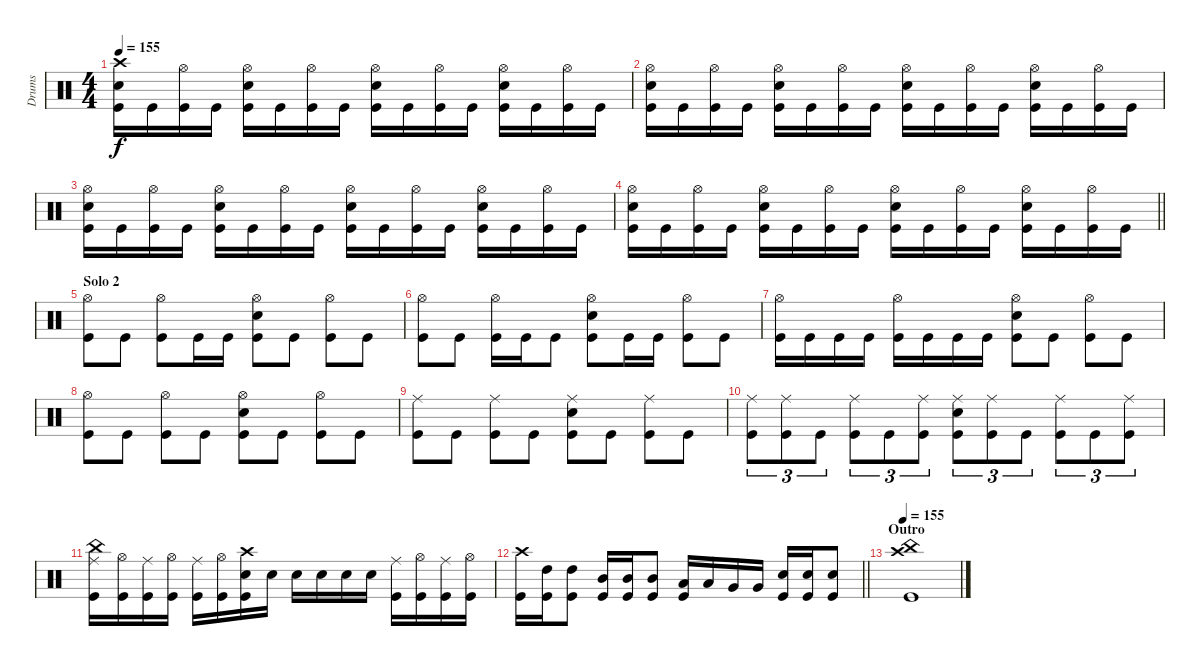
\track ("Drums" "Drums") {instrument percussion}
\staff {score}
\articulation defaults
\ts (4 4)
\tempo 155
\clef neutral
\ks c
("Kick (hit)" "Snare (hit) 2" "Crash high (hit)").16{dy f} "Kick (hit)".16 ("Kick (hit)" "Hi-Hat (open)").16 "Kick (hit)".16 ("Kick (hit)" "Snare (hit) 2" "Hi-Hat (open)").16 "Kick (hit)".16 ("Kick (hit)" "Hi-Hat (open)").16 "Kick (hit)".16 ("Kick (hit)" "Snare (hit) 2" "Hi-Hat (open)").16 "Kick (hit)".16 ("Kick (hit)" "Hi-Hat (open)").16 "Kick (hit)".16 ("Kick (hit)" "Snare (hit) 2" "Hi-Hat (open)").16 "Kick (hit)".16 ("Kick (hit)" "Hi-Hat (open)").16 "Kick (hit)".16 |
("Kick (hit)" "Snare (hit) 2" "Hi-Hat (open)").16 "Kick (hit)".16 ("Kick (hit)" "Hi-Hat (open)").16 "Kick (hit)".16 ("Kick (hit)" "Snare (hit) 2" "Hi-Hat (open)").16 "Kick (hit)".16 ("Kick (hit)" "Hi-Hat (open)").16 "Kick (hit)".16 ("Kick (hit)" "Snare (hit) 2" "Hi-Hat (open)").16 "Kick (hit)".16 ("Kick (hit)" "Hi-Hat (open)").16 "Kick (hit)".16 ("Kick (hit)" "Snare (hit) 2" "Hi-Hat (open)").16 "Kick (hit)".16 ("Kick (hit)" "Hi-Hat (open)").16 "Kick (hit)".16 |
("Kick (hit)" "Snare (hit) 2" "Hi-Hat (open)").16 "Kick (hit)".16 ("Kick (hit)" "Hi-Hat (open)").16 "Kick (hit)".16 ("Kick (hit)" "Snare (hit) 2" "Hi-Hat (open)").16 "Kick (hit)".16 ("Kick (hit)" "Hi-Hat (open)").16 "Kick (hit)".16 ("Kick (hit)" "Snare (hit) 2" "Hi-Hat (open)").16 "Kick (hit)".16 ("Kick (hit)" "Hi-Hat (open)").16 "Kick (hit)".16 ("Kick (hit)" "Snare (hit) 2" "Hi-Hat (open)").16 "Kick (hit)".16 ("Kick (hit)" "Hi-Hat (open)").16 "Kick (hit)".16 |
\barLineRight lightlight
("Kick (hit)" "Snare (hit) 2" "Hi-Hat (open)").16 "Kick (hit)".16 ("Kick (hit)" "Hi-Hat (open)").16 "Kick (hit)".16 ("Kick (hit)" "Snare (hit) 2" "Hi-Hat (open)").16 "Kick (hit)".16 ("Kick (hit)" "Hi-Hat (open)").16 "Kick (hit)".16 ("Kick (hit)" "Snare (hit) 2" "Hi-Hat (open)").16 "Kick (hit)".16 ("Kick (hit)" "Hi-Hat (open)").16 "Kick (hit)".16 ("Kick (hit)" "Snare (hit) 2" "Hi-Hat (open)").16 "Kick (hit)".16 ("Kick (hit)" "Hi-Hat (open)").16 "Kick (hit)".16 |
\section ("" "Solo 2")
("Kick (hit)" "Hi-Hat (open)").8 "Kick (hit)".8 ("Kick (hit)" "Hi-Hat (open)").8 "Kick (hit)".16 "Kick (hit)".16 ("Kick (hit)" "Snare (hit) 2" "Hi-Hat (open)").8 "Kick (hit)".8 ("Kick (hit)" "Hi-Hat (open)").8 "Kick (hit)".8 |
("Kick (hit)" "Hi-Hat (open)").8 "Kick (hit)".8 ("Kick (hit)" "Hi-Hat (open)").16 "Kick (hit)".16 "Kick (hit)".8 ("Kick (hit)" "Hi-Hat (open)" "Snare (hit) 2").8 "Kick (hit)".16 "Kick (hit)".16 ("Kick (hit)" "Hi-Hat (open)").8 "Kick (hit)".8 |
("Kick (hit)" "Hi-Hat (open)").16 "Kick (hit)".16 "Kick (hit)".16 "Kick (hit)".16 ("Kick (hit)" "Hi-Hat (open)").16 "Kick (hit)".16 "Kick (hit)".16 "Kick (hit)".16 ("Kick (hit)" "Hi-Hat (open)" "Snare (hit) 2").8 "Kick (hit)".8 ("Kick (hit)" "Hi-Hat (open)").8 "Kick (hit)".8 |
("Kick (hit)" "Hi-Hat (open)").8 "Kick (hit)".8 ("Kick (hit)" "Hi-Hat (open)").8 "Kick (hit)".8 ("Kick (hit)" "Hi-Hat (open)" "Snare (hit) 2").8 "Kick (hit)".8 ("Kick (hit)" "Hi-Hat (open)").8 "Kick (hit)".8 |
("Kick (hit)" "Ride (middle)").8 "Kick (hit)".8 ("Kick (hit)" "Ride (middle)").8 "Kick (hit)".8 ("Kick (hit)" "Ride (middle)" "Snare (hit) 2").8 "Kick (hit)".8 ("Kick (hit)" "Ride (middle)").8 "Kick (hit)".8 |
("Kick (hit)" "Ride (middle)").8{tu (3 2)} ("Kick (hit)" "Ride (middle)").8{tu (3 2)} "Kick (hit)".8{tu (3 2)} ("Kick (hit)" "Ride (middle)").8{tu (3 2)} "Kick (hit)".8{tu (3 2)} ("Kick (hit)" "Ride (middle)").8{tu (3 2)} ("Kick (hit)" "Ride (middle)" "Snare (hit) 2").8{tu (3 2)} ("Kick (hit)" "Ride (middle)").8{tu (3 2)} "Kick (hit)".8{tu (3 2)} ("Kick (hit)" "Ride (middle)").8{tu (3 2)} "Kick (hit)".8{tu (3 2)} ("Kick (hit)" "Ride (middle)").8{tu (3 2)} |
("Kick (hit)" "Ride (middle)" "China (hit)").16 ("Kick (hit)" "Hi-Hat (open)").16 ("Kick (hit)" "Ride (middle)").16 ("Kick (hit)" "Hi-Hat (open)").16 ("Kick (hit)" "Ride (middle)").16 ("Kick (hit)" "Hi-Hat (open)").16 ("Kick (hit)" "Crash high (hit)" "Snare (hit) 2").16 "Snare (hit) 2".16 "Snare (hit) 2".16 "Snare (hit) 2".16 "Snare (hit) 2".16 "Snare (hit) 2".16 ("Kick (hit)" "Ride (middle)").16 ("Kick (hit)" "Hi-Hat (open)").16 ("Kick (hit)" "Ride (middle)").16 ("Kick (hit)" "Hi-Hat (open)").16 |
\barLineRight lightlight
("Kick (hit)" "Crash high (hit)").16 ("Kick (hit)" "High Tom (hit)").16 ("Kick (hit)" "High Tom (hit)").8 ("Kick (hit)" "Mid Tom (hit)").16 ("Kick (hit)" "Mid Tom (hit)").16 ("Kick (hit)" "Mid Tom (hit)").8 ("Kick (hit)" "Low Tom (hit)").16 "Low Tom (hit)".16 "Very Low Tom (hit)".16 "Very Low Tom (hit)".16 ("Kick (hit)" "Snare (hit) 2").16 ("Kick (hit)" "Snare (hit) 2").16 ("Kick (hit)" "Snare (hit) 2").8 |
\section ("" "Outro")
\tempo 155
("Kick (hit)" "Crash high (hit)" "China (hit)").1
